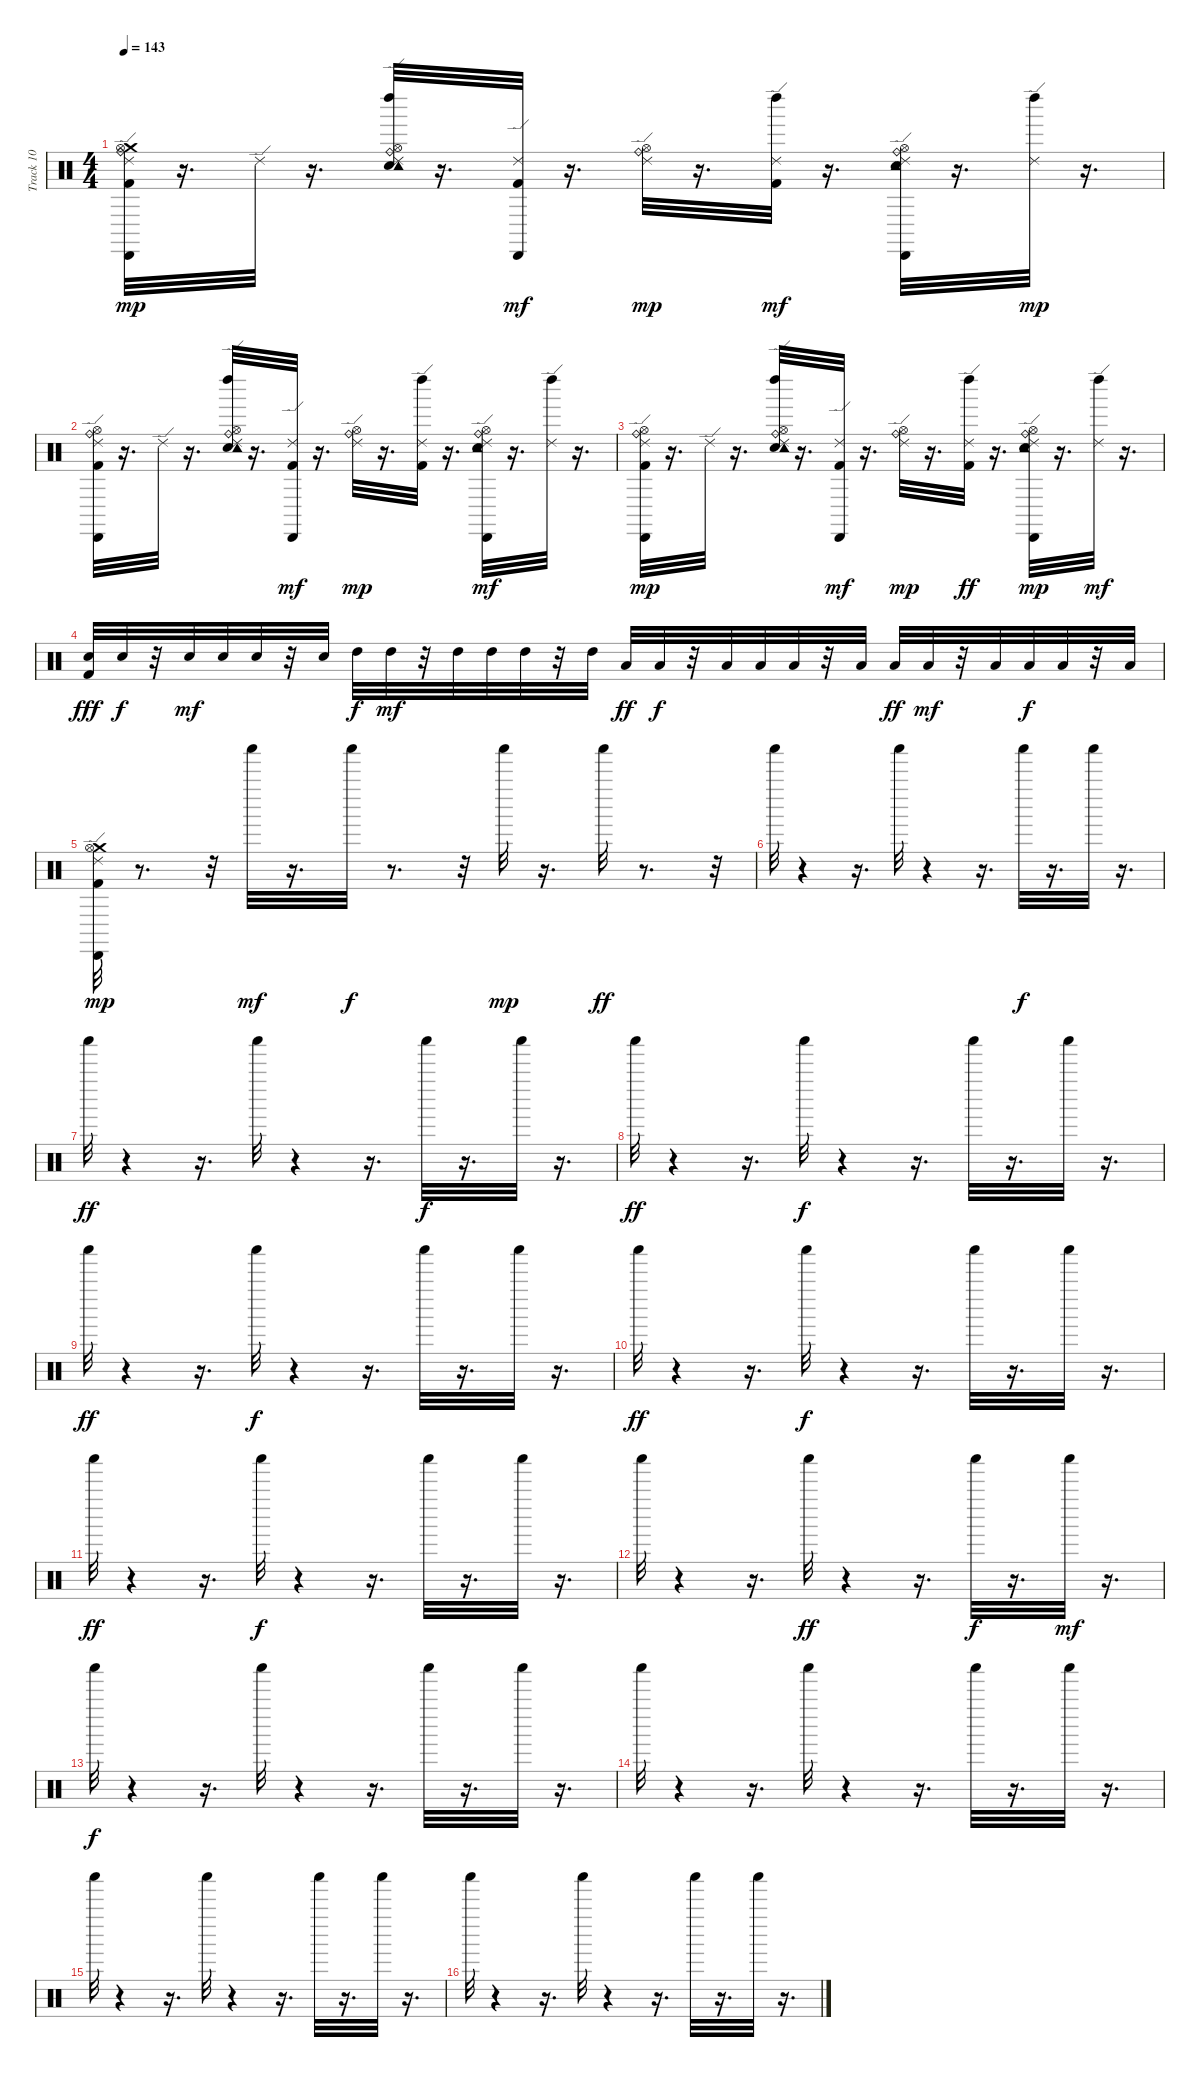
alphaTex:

\track ("Track 10" "Track 10") {instrument percussion}
\staff {score}
\articulation defaults
\ts (4 4)
\tempo 143
\clef neutral
\ks c
("Kick (hit) 2" "Ride (edge) 2" "Crash medium (hit)" "Cabasa (hit)" "Hi-Hat (open)" "Ride (bell)").32{dy mp} r.16{d} "Ride (edge) 2".32 r.16{d} ("Snare (hit) 2" "Ride (edge) 2" "Tambourine (hit)" "Left Maraca (hit)" "Hi-Hat (open)" "Ride (bell)").32 r.16{d} ("Kick (hit) 2" "Ride (edge) 2" "Cabasa (hit)").32{dy mf} r.16{d} ("Ride (edge) 2" "Hi-Hat (open)" "Ride (bell)").32{dy mp} r.16{d} ("Kick (hit) 2" "Ride (edge) 2" "Left Maraca (hit)").32{dy mf} r.16{d} ("Snare (hit) 2" "Ride (edge) 2" "Tambourine (hit)" "Cabasa (hit)" "Hi-Hat (open)" "Ride (bell)").32 r.16{d} ("Ride (edge) 2" "Left Maraca (hit)").32{dy mp} r.16{d} |
("Kick (hit) 2" "Ride (edge) 2" "Cabasa (hit)" "Hi-Hat (open)" "Ride (bell)").32 r.16{d} "Ride (edge) 2".32 r.16{d} ("Snare (hit) 2" "Ride (edge) 2" "Tambourine (hit)" "Left Maraca (hit)" "Hi-Hat (open)" "Ride (bell)").32 r.16{d} ("Kick (hit) 2" "Ride (edge) 2" "Cabasa (hit)").32{dy mf} r.16{d} ("Ride (edge) 2" "Hi-Hat (open)" "Ride (bell)").32{dy mp} r.16{d} ("Kick (hit) 2" "Ride (edge) 2" "Left Maraca (hit)").32 r.16{d} ("Snare (hit) 2" "Ride (edge) 2" "Tambourine (hit)" "Cabasa (hit)" "Hi-Hat (open)" "Ride (bell)").32{dy mf} r.16{d} ("Ride (edge) 2" "Left Maraca (hit)").32 r.16{d} |
("Kick (hit) 2" "Ride (edge) 2" "Cabasa (hit)" "Hi-Hat (open)" "Ride (bell)").32{dy mp} r.16{d} "Ride (edge) 2".32 r.16{d} ("Snare (hit) 2" "Ride (edge) 2" "Tambourine (hit)" "Left Maraca (hit)" "Hi-Hat (open)" "Ride (bell)").32 r.16{d} ("Kick (hit) 2" "Ride (edge) 2" "Cabasa (hit)").32{dy mf} r.16{d} ("Ride (edge) 2" "Hi-Hat (open)" "Ride (bell)").32{dy mp} r.16{d} ("Kick (hit) 2" "Ride (edge) 2" "Left Maraca (hit)").32{dy ff} r.16{d} ("Snare (hit) 2" "Ride (edge) 2" "Tambourine (hit)" "Cabasa (hit)" "Hi-Hat (open)" "Ride (bell)").32{dy mp} r.16{d} ("Ride (edge) 2" "Left Maraca (hit)").32{dy mf} r.16{d} |
("Snare (hit) 2" "Kick (hit) 2").32{dy fff} "Snare (hit) 2".32{dy f} r.32 "Snare (hit) 2".32{dy mf} "Snare (hit) 2".32 "Snare (hit) 2".32 r.32 "Snare (hit) 2".32 "High Tom (hit)".32{dy f} "High Tom (hit)".32{dy mf} r.32 "High Tom (hit)".32 "High Tom (hit)".32 "High Tom (hit)".32 r.32 "High Tom (hit)".32 "Low Tom (hit)".32{dy ff} "Low Tom (hit)".32{dy f} r.32 "Low Tom (hit)".32 "Low Tom (hit)".32 "Low Tom (hit)".32 r.32 "Low Tom (hit)".32 "Low Floor Tom (hit)".32{dy ff} "Low Floor Tom (hit)".32{dy mf} r.32 "Low Floor Tom (hit)".32 "Low Floor Tom (hit)".32{dy f} "Low Floor Tom (hit)".32 r.32 "Low Floor Tom (hit)".32 |
("Kick (hit) 2" "Crash medium (hit)" "Ride (edge) 2" "Cabasa (hit)" "Hi-Hat (open)").32{dy mp} r.8{d} r.32 "Shaker (hit)".32{dy mf} r.16{d} "Shaker (hit)".32{dy f} r.8{d} r.32 "Shaker (hit)".32{dy mp} r.16{d} "Shaker (hit)".32{dy ff} r.8{d} r.32 |
"Shaker (hit)".32 r.4 r.16{d} "Shaker (hit)".32 r.4 r.16{d} "Shaker (hit)".32{dy f} r.16{d} "Shaker (hit)".32 r.16{d} |
"Shaker (hit)".32{dy ff} r.4 r.16{d} "Shaker (hit)".32 r.4 r.16{d} "Shaker (hit)".32{dy f} r.16{d} "Shaker (hit)".32 r.16{d} |
"Shaker (hit)".32{dy ff} r.4 r.16{d} "Shaker (hit)".32{dy f} r.4 r.16{d} "Shaker (hit)".32 r.16{d} "Shaker (hit)".32 r.16{d} |
"Shaker (hit)".32{dy ff} r.4 r.16{d} "Shaker (hit)".32{dy f} r.4 r.16{d} "Shaker (hit)".32 r.16{d} "Shaker (hit)".32 r.16{d} |
"Shaker (hit)".32{dy ff} r.4 r.16{d} "Shaker (hit)".32{dy f} r.4 r.16{d} "Shaker (hit)".32 r.16{d} "Shaker (hit)".32 r.16{d} |
"Shaker (hit)".32{dy ff} r.4 r.16{d} "Shaker (hit)".32{dy f} r.4 r.16{d} "Shaker (hit)".32 r.16{d} "Shaker (hit)".32 r.16{d} |
"Shaker (hit)".32 r.4 r.16{d} "Shaker (hit)".32{dy ff} r.4 r.16{d} "Shaker (hit)".32{dy f} r.16{d} "Shaker (hit)".32{dy mf} r.16{d} |
"Shaker (hit)".32{dy f} r.4 r.16{d} "Shaker (hit)".32 r.4 r.16{d} "Shaker (hit)".32 r.16{d} "Shaker (hit)".32 r.16{d} |
"Shaker (hit)".32 r.4 r.16{d} "Shaker (hit)".32 r.4 r.16{d} "Shaker (hit)".32 r.16{d} "Shaker (hit)".32 r.16{d} |
"Shaker (hit)".32 r.4 r.16{d} "Shaker (hit)".32 r.4 r.16{d} "Shaker (hit)".32 r.16{d} "Shaker (hit)".32 r.16{d} |
"Shaker (hit)".32 r.4 r.16{d} "Shaker (hit)".32 r.4 r.16{d} "Shaker (hit)".32 r.16{d} "Shaker (hit)".32 r.16{d}
